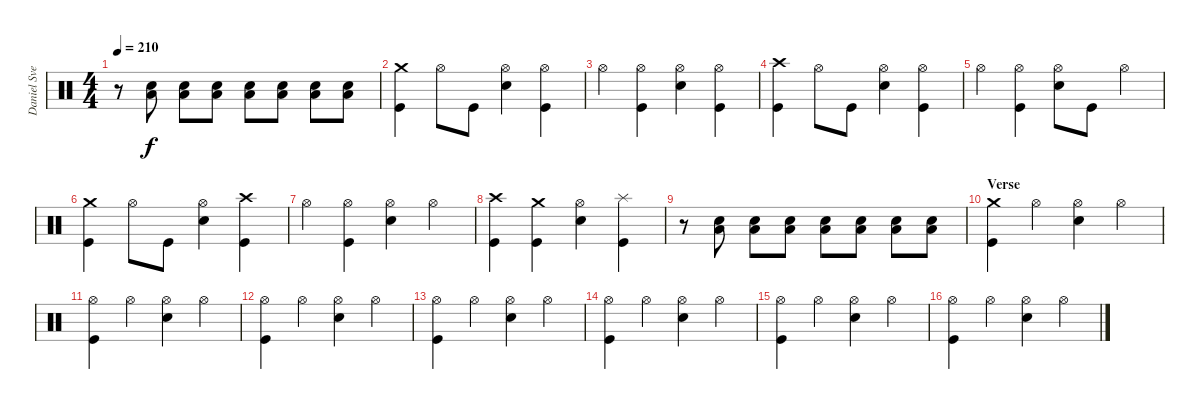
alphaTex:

\track ("Daniel Svensson" "Daniel Sve") {instrument percussion}
\staff {score}
\articulation defaults
\ts (4 4)
\tempo 210
\clef neutral
\ks c
r.8{dy f} ("Low Floor Tom (hit)" "Electric Snare (hit)").8 ("Low Floor Tom (hit)" "Electric Snare (hit)").8 ("Low Floor Tom (hit)" "Electric Snare (hit)").8 ("Low Floor Tom (hit)" "Electric Snare (hit)").8 ("Low Floor Tom (hit)" "Electric Snare (hit)").8 ("Low Floor Tom (hit)" "Electric Snare (hit)").8 ("Low Floor Tom (hit)" "Electric Snare (hit)").8 |
("Crash medium (hit)" "Kick (hit)").4 "Hi-Hat (open)".8 "Kick (hit)".8 ("Hi-Hat (open)" "Electric Snare (hit)").4 ("Hi-Hat (open)" "Kick (hit)").4 |
"Hi-Hat (open)".4 ("Hi-Hat (open)" "Kick (hit)").4 ("Hi-Hat (open)" "Electric Snare (hit)").4 ("Hi-Hat (open)" "Kick (hit)").4 |
("Crash high (hit)" "Kick (hit)").4 "Hi-Hat (open)".8 "Kick (hit)".8 ("Hi-Hat (open)" "Electric Snare (hit)").4 ("Hi-Hat (open)" "Kick (hit)").4 |
"Hi-Hat (open)".4 ("Hi-Hat (open)" "Kick (hit)").4 ("Hi-Hat (open)" "Electric Snare (hit)").8 "Kick (hit)".8 "Hi-Hat (open)".4 |
("Crash medium (hit)" "Kick (hit)").4 "Hi-Hat (open)".8 "Kick (hit)".8 ("Hi-Hat (open)" "Electric Snare (hit)").4 ("Crash high (hit)" "Kick (hit)").4 |
"Hi-Hat (open)".4 ("Hi-Hat (open)" "Kick (hit)").4 ("Hi-Hat (open)" "Electric Snare (hit)").4 "Hi-Hat (open)".4 |
("Crash high (hit)" "Kick (hit)").4 ("Crash medium (hit)" "Kick (hit)").4 ("Hi-Hat (open)" "Electric Snare (hit)").4 ("Splash (hit)" "Kick (hit)").4 |
r.8 ("Low Floor Tom (hit)" "Electric Snare (hit)").8 ("Low Floor Tom (hit)" "Electric Snare (hit)").8 ("Low Floor Tom (hit)" "Electric Snare (hit)").8 ("Low Floor Tom (hit)" "Electric Snare (hit)").8 ("Low Floor Tom (hit)" "Electric Snare (hit)").8 ("Low Floor Tom (hit)" "Electric Snare (hit)").8 ("Low Floor Tom (hit)" "Electric Snare (hit)").8 |
\section ("" "Verse")
("Crash medium (hit)" "Kick (hit)").4 "Hi-Hat (open)".4 ("Hi-Hat (open)" "Electric Snare (hit)").4 "Hi-Hat (open)".4 |
("Hi-Hat (open)" "Kick (hit)").4 "Hi-Hat (open)".4 ("Hi-Hat (open)" "Electric Snare (hit)").4 "Hi-Hat (open)".4 |
("Hi-Hat (open)" "Kick (hit)").4 "Hi-Hat (open)".4 ("Hi-Hat (open)" "Electric Snare (hit)").4 "Hi-Hat (open)".4 |
("Hi-Hat (open)" "Kick (hit)").4 "Hi-Hat (open)".4 ("Hi-Hat (open)" "Electric Snare (hit)").4 "Hi-Hat (open)".4 |
("Hi-Hat (open)" "Kick (hit)").4 "Hi-Hat (open)".4 ("Hi-Hat (open)" "Electric Snare (hit)").4 "Hi-Hat (open)".4 |
("Hi-Hat (open)" "Kick (hit)").4 "Hi-Hat (open)".4 ("Hi-Hat (open)" "Electric Snare (hit)").4 "Hi-Hat (open)".4 |
("Hi-Hat (open)" "Kick (hit)").4 "Hi-Hat (open)".4 ("Hi-Hat (open)" "Electric Snare (hit)").4 "Hi-Hat (open)".4
